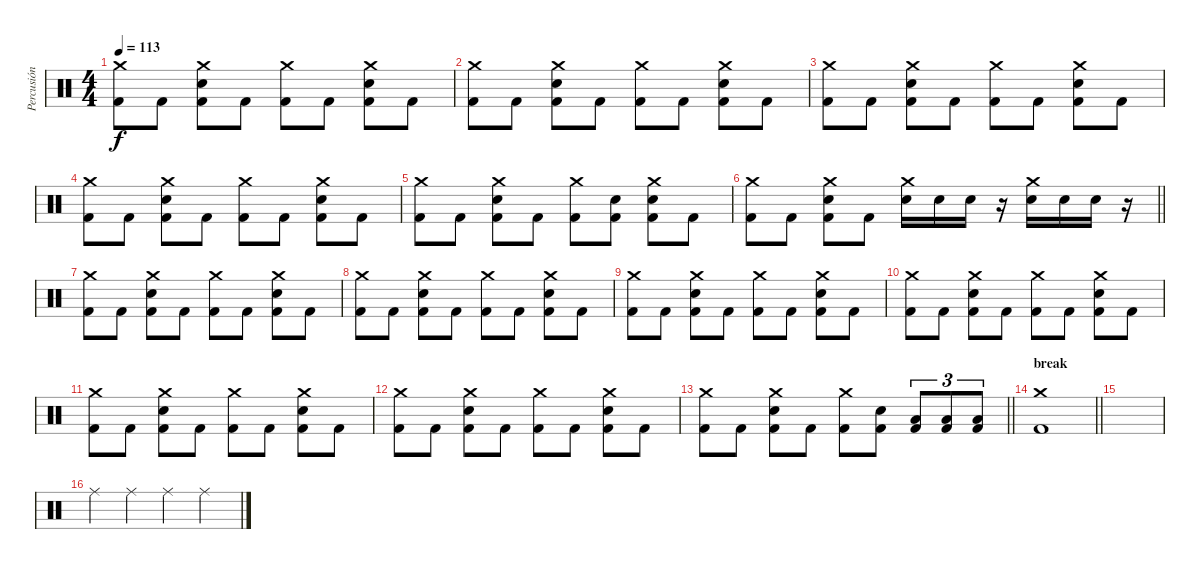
\track ("Percusión" "Percusión") {instrument percussion}
\staff {score}
\articulation defaults
\ts (4 4)
\tempo 113
\clef neutral
\ks c
("Crash medium (hit)" "Kick (hit) 2").8{dy f} "Kick (hit) 2".8 ("Crash medium (hit)" "Electric Snare (hit)" "Kick (hit) 2").8 "Kick (hit) 2".8 ("Crash medium (hit)" "Kick (hit) 2").8 "Kick (hit) 2".8 ("Crash medium (hit)" "Electric Snare (hit)" "Kick (hit) 2").8 "Kick (hit) 2".8 |
("Crash medium (hit)" "Kick (hit) 2").8 "Kick (hit) 2".8 ("Crash medium (hit)" "Electric Snare (hit)" "Kick (hit) 2").8 "Kick (hit) 2".8 ("Crash medium (hit)" "Kick (hit) 2").8 "Kick (hit) 2".8 ("Crash medium (hit)" "Electric Snare (hit)" "Kick (hit) 2").8 "Kick (hit) 2".8 |
("Crash medium (hit)" "Kick (hit) 2").8 "Kick (hit) 2".8 ("Crash medium (hit)" "Electric Snare (hit)" "Kick (hit) 2").8 "Kick (hit) 2".8 ("Crash medium (hit)" "Kick (hit) 2").8 "Kick (hit) 2".8 ("Crash medium (hit)" "Electric Snare (hit)" "Kick (hit) 2").8 "Kick (hit) 2".8 |
("Crash medium (hit)" "Kick (hit) 2").8 "Kick (hit) 2".8 ("Crash medium (hit)" "Electric Snare (hit)" "Kick (hit) 2").8 "Kick (hit) 2".8 ("Crash medium (hit)" "Kick (hit) 2").8 "Kick (hit) 2".8 ("Crash medium (hit)" "Electric Snare (hit)" "Kick (hit) 2").8 "Kick (hit) 2".8 |
("Crash medium (hit)" "Kick (hit) 2").8 "Kick (hit) 2".8 ("Crash medium (hit)" "Electric Snare (hit)" "Kick (hit) 2").8 "Kick (hit) 2".8 ("Crash medium (hit)" "Kick (hit) 2").8 ("Electric Snare (hit)" "Kick (hit) 2").8 ("Crash medium (hit)" "Electric Snare (hit)" "Kick (hit) 2").8 "Kick (hit) 2".8 |
\barLineRight lightlight
("Crash medium (hit)" "Kick (hit) 2").8 "Kick (hit) 2".8 ("Crash medium (hit)" "Electric Snare (hit)" "Kick (hit) 2").8 "Kick (hit) 2".8 ("Crash medium (hit)" "Electric Snare (hit)").16 "Electric Snare (hit)".16 "Electric Snare (hit)".16 r.16 ("Crash medium (hit)" "Electric Snare (hit)").16 "Electric Snare (hit)".16 "Electric Snare (hit)".16 r.16 |
\section ("" "")
("Crash medium (hit)" "Kick (hit) 2").8 "Kick (hit) 2".8 ("Crash medium (hit)" "Electric Snare (hit)" "Kick (hit) 2").8 "Kick (hit) 2".8 ("Crash medium (hit)" "Kick (hit) 2").8 "Kick (hit) 2".8 ("Crash medium (hit)" "Electric Snare (hit)" "Kick (hit) 2").8 "Kick (hit) 2".8 |
("Crash medium (hit)" "Kick (hit) 2").8 "Kick (hit) 2".8 ("Crash medium (hit)" "Electric Snare (hit)" "Kick (hit) 2").8 "Kick (hit) 2".8 ("Crash medium (hit)" "Kick (hit) 2").8 "Kick (hit) 2".8 ("Crash medium (hit)" "Electric Snare (hit)" "Kick (hit) 2").8 "Kick (hit) 2".8 |
("Crash medium (hit)" "Kick (hit) 2").8 "Kick (hit) 2".8 ("Crash medium (hit)" "Electric Snare (hit)" "Kick (hit) 2").8 "Kick (hit) 2".8 ("Crash medium (hit)" "Kick (hit) 2").8 "Kick (hit) 2".8 ("Crash medium (hit)" "Electric Snare (hit)" "Kick (hit) 2").8 "Kick (hit) 2".8 |
("Crash medium (hit)" "Kick (hit) 2").8 "Kick (hit) 2".8 ("Crash medium (hit)" "Electric Snare (hit)" "Kick (hit) 2").8 "Kick (hit) 2".8 ("Crash medium (hit)" "Kick (hit) 2").8 "Kick (hit) 2".8 ("Crash medium (hit)" "Electric Snare (hit)" "Kick (hit) 2").8 "Kick (hit) 2".8 |
("Crash medium (hit)" "Kick (hit) 2").8 "Kick (hit) 2".8 ("Crash medium (hit)" "Electric Snare (hit)" "Kick (hit) 2").8 "Kick (hit) 2".8 ("Crash medium (hit)" "Kick (hit) 2").8 "Kick (hit) 2".8 ("Crash medium (hit)" "Electric Snare (hit)" "Kick (hit) 2").8 "Kick (hit) 2".8 |
("Crash medium (hit)" "Kick (hit) 2").8 "Kick (hit) 2".8 ("Crash medium (hit)" "Electric Snare (hit)" "Kick (hit) 2").8 "Kick (hit) 2".8 ("Crash medium (hit)" "Kick (hit) 2").8 "Kick (hit) 2".8 ("Crash medium (hit)" "Electric Snare (hit)" "Kick (hit) 2").8 "Kick (hit) 2".8 |
\barLineRight lightlight
("Crash medium (hit)" "Kick (hit) 2").8 "Kick (hit) 2".8 ("Crash medium (hit)" "Electric Snare (hit)" "Kick (hit) 2").8 "Kick (hit) 2".8 ("Crash medium (hit)" "Kick (hit) 2").8 ("Electric Snare (hit)" "Kick (hit) 2").8 ("Low Floor Tom (hit)" "Kick (hit) 2").8{tu (3 2)} ("Low Floor Tom (hit)" "Kick (hit) 2").8{tu (3 2)} ("Low Floor Tom (hit)" "Kick (hit) 2").8{tu (3 2)} |
\section ("" "break")
\barLineRight lightlight
("Crash medium (hit)" "Kick (hit) 2").1 |
|
"Ride (middle)".4 "Ride (middle)".4 "Ride (middle)".4 "Ride (middle)".4
